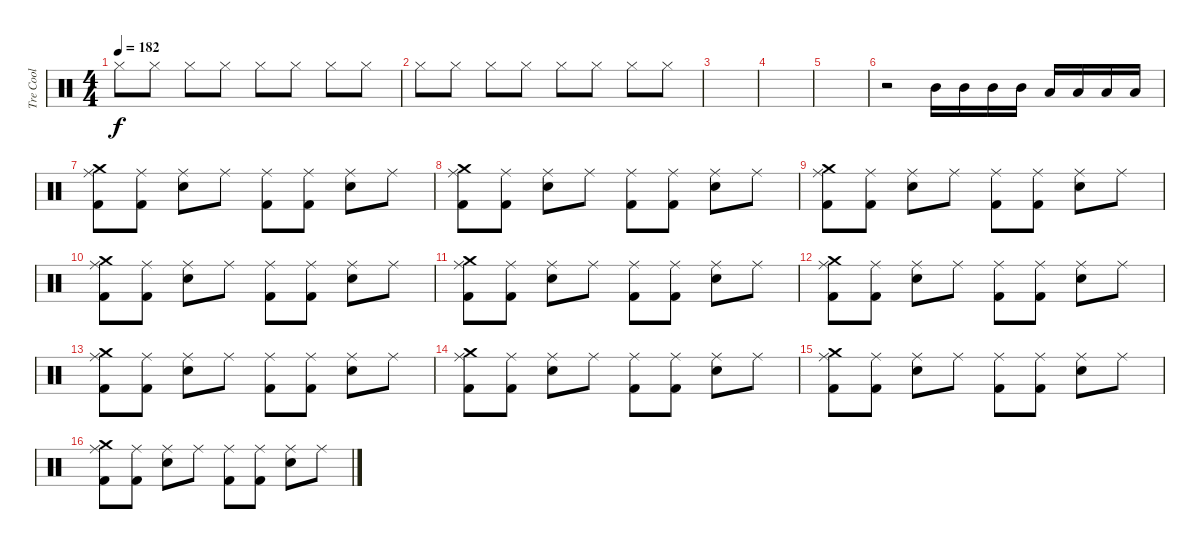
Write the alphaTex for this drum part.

\track ("Tre Cool" "Tre Cool") {instrument percussion}
\staff {score}
\articulation defaults
\ts (4 4)
\tempo 182
\clef neutral
\ks c "Hi-Hat (closed)".8{dy f} "Hi-Hat (closed)".8 "Hi-Hat (closed)".8 "Hi-Hat (closed)".8 "Hi-Hat (closed)".8 "Hi-Hat (closed)".8 "Hi-Hat (closed)".8 "Hi-Hat (closed)".8
|
"Hi-Hat (closed)".8 "Hi-Hat (closed)".8 "Hi-Hat (closed)".8 "Hi-Hat (closed)".8 "Hi-Hat (closed)".8 "Hi-Hat (closed)".8 "Hi-Hat (closed)".8 "Hi-Hat (closed)".8 |
|
|
|
r.2 "Mid Tom (hit)".16 "Mid Tom (hit)".16 "Mid Tom (hit)".16 "Mid Tom (hit)".16 "Low Tom (hit)".16 "Low Tom (hit)".16 "Low Tom (hit)".16 "Low Tom (hit)".16 |
("Crash medium (hit)" "Ride (middle)" "Kick (hit) 2").8 ("Ride (middle)" "Kick (hit) 2").8 ("Ride (middle)" "Snare (hit) 2").8 "Ride (middle)".8 ("Ride (middle)" "Kick (hit) 2").8 ("Ride (middle)" "Kick (hit) 2").8 ("Ride (middle)" "Snare (hit) 2").8 "Ride (middle)".8 |
("Crash medium (hit)" "Ride (middle)" "Kick (hit) 2").8 ("Ride (middle)" "Kick (hit) 2").8 ("Ride (middle)" "Snare (hit) 2").8 "Ride (middle)".8 ("Ride (middle)" "Kick (hit) 2").8 ("Ride (middle)" "Kick (hit) 2").8 ("Ride (middle)" "Snare (hit) 2").8 "Ride (middle)".8 |
("Crash medium (hit)" "Ride (middle)" "Kick (hit) 2").8 ("Ride (middle)" "Kick (hit) 2").8 ("Ride (middle)" "Snare (hit) 2").8 "Ride (middle)".8 ("Ride (middle)" "Kick (hit) 2").8 ("Ride (middle)" "Kick (hit) 2").8 ("Ride (middle)" "Snare (hit) 2").8 "Ride (middle)".8 |
("Crash medium (hit)" "Ride (middle)" "Kick (hit) 2").8 ("Ride (middle)" "Kick (hit) 2").8 ("Ride (middle)" "Snare (hit) 2").8 "Ride (middle)".8 ("Ride (middle)" "Kick (hit) 2").8 ("Ride (middle)" "Kick (hit) 2").8 ("Ride (middle)" "Snare (hit) 2").8 "Ride (middle)".8 |
("Crash medium (hit)" "Ride (middle)" "Kick (hit) 2").8 ("Ride (middle)" "Kick (hit) 2").8 ("Ride (middle)" "Snare (hit) 2").8 "Ride (middle)".8 ("Ride (middle)" "Kick (hit) 2").8 ("Ride (middle)" "Kick (hit) 2").8 ("Ride (middle)" "Snare (hit) 2").8 "Ride (middle)".8 |
("Crash medium (hit)" "Ride (middle)" "Kick (hit) 2").8 ("Ride (middle)" "Kick (hit) 2").8 ("Ride (middle)" "Snare (hit) 2").8 "Ride (middle)".8 ("Ride (middle)" "Kick (hit) 2").8 ("Ride (middle)" "Kick (hit) 2").8 ("Ride (middle)" "Snare (hit) 2").8 "Ride (middle)".8 |
("Crash medium (hit)" "Ride (middle)" "Kick (hit) 2").8 ("Ride (middle)" "Kick (hit) 2").8 ("Ride (middle)" "Snare (hit) 2").8 "Ride (middle)".8 ("Ride (middle)" "Kick (hit) 2").8 ("Ride (middle)" "Kick (hit) 2").8 ("Ride (middle)" "Snare (hit) 2").8 "Ride (middle)".8 |
("Crash medium (hit)" "Ride (middle)" "Kick (hit) 2").8 ("Ride (middle)" "Kick (hit) 2").8 ("Ride (middle)" "Snare (hit) 2").8 "Ride (middle)".8 ("Ride (middle)" "Kick (hit) 2").8 ("Ride (middle)" "Kick (hit) 2").8 ("Ride (middle)" "Snare (hit) 2").8 "Ride (middle)".8 |
("Crash medium (hit)" "Ride (middle)" "Kick (hit) 2").8 ("Ride (middle)" "Kick (hit) 2").8 ("Ride (middle)" "Snare (hit) 2").8 "Ride (middle)".8 ("Ride (middle)" "Kick (hit) 2").8 ("Ride (middle)" "Kick (hit) 2").8 ("Ride (middle)" "Snare (hit) 2").8 "Ride (middle)".8 |
("Crash medium (hit)" "Ride (middle)" "Kick (hit) 2").8 ("Ride (middle)" "Kick (hit) 2").8 ("Ride (middle)" "Snare (hit) 2").8 "Ride (middle)".8 ("Ride (middle)" "Kick (hit) 2").8 ("Ride (middle)" "Kick (hit) 2").8 ("Ride (middle)" "Snare (hit) 2").8 "Ride (middle)".8
